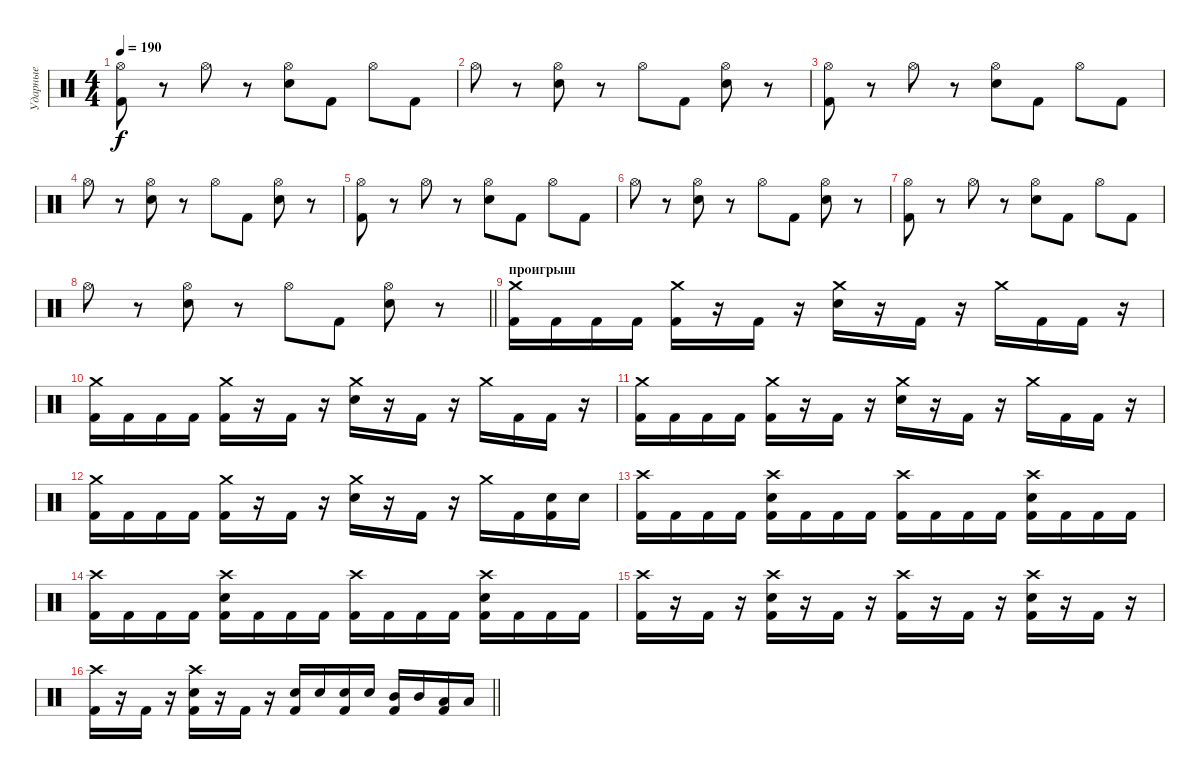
\track ("Ударные" "Ударные") {instrument percussion}
\staff {score}
\articulation defaults
\ts (4 4)
\tempo 190
\clef neutral
\ks c
("Hi-Hat (open)" "Kick (hit) 2").8{dy f} r.8 "Hi-Hat (open)".8 r.8 ("Hi-Hat (open)" "Electric Snare (hit)").8 "Kick (hit) 2".8 "Hi-Hat (open)".8 "Kick (hit) 2".8 |
"Hi-Hat (open)".8 r.8 ("Hi-Hat (open)" "Electric Snare (hit)").8 r.8 "Hi-Hat (open)".8 "Kick (hit) 2".8 ("Hi-Hat (open)" "Electric Snare (hit)").8 r.8 |
("Hi-Hat (open)" "Kick (hit) 2").8 r.8 "Hi-Hat (open)".8 r.8 ("Hi-Hat (open)" "Electric Snare (hit)").8 "Kick (hit) 2".8 "Hi-Hat (open)".8 "Kick (hit) 2".8 |
"Hi-Hat (open)".8 r.8 ("Hi-Hat (open)" "Electric Snare (hit)").8 r.8 "Hi-Hat (open)".8 "Kick (hit) 2".8 ("Hi-Hat (open)" "Electric Snare (hit)").8 r.8 |
("Hi-Hat (open)" "Kick (hit) 2").8 r.8 "Hi-Hat (open)".8 r.8 ("Hi-Hat (open)" "Electric Snare (hit)").8 "Kick (hit) 2".8 "Hi-Hat (open)".8 "Kick (hit) 2".8 |
"Hi-Hat (open)".8 r.8 ("Hi-Hat (open)" "Electric Snare (hit)").8 r.8 "Hi-Hat (open)".8 "Kick (hit) 2".8 ("Hi-Hat (open)" "Electric Snare (hit)").8 r.8 |
("Hi-Hat (open)" "Kick (hit) 2").8 r.8 "Hi-Hat (open)".8 r.8 ("Hi-Hat (open)" "Electric Snare (hit)").8 "Kick (hit) 2".8 "Hi-Hat (open)".8 "Kick (hit) 2".8 |
\barLineRight lightlight "Hi-Hat (open)".8
r.8 ("Hi-Hat (open)" "Electric Snare (hit)").8 r.8 "Hi-Hat (open)".8 "Kick (hit) 2".8 ("Hi-Hat (open)" "Electric Snare (hit)").8 r.8 |
\section ("" "проигрыш")
("Kick (hit) 2" "Crash medium (hit)").16 "Kick (hit) 2".16 "Kick (hit) 2".16 "Kick (hit) 2".16 ("Kick (hit) 2" "Crash medium (hit)").16 r.16 "Kick (hit) 2".16 r.16 ("Electric Snare (hit)" "Crash medium (hit)").16 r.16 "Kick (hit) 2".16 r.16 "Crash medium (hit)".16 "Kick (hit) 2".16 "Kick (hit) 2".16 r.16 |
("Kick (hit) 2" "Crash medium (hit)").16 "Kick (hit) 2".16 "Kick (hit) 2".16 "Kick (hit) 2".16 ("Kick (hit) 2" "Crash medium (hit)").16 r.16 "Kick (hit) 2".16 r.16 ("Electric Snare (hit)" "Crash medium (hit)").16 r.16 "Kick (hit) 2".16 r.16 "Crash medium (hit)".16 "Kick (hit) 2".16 "Kick (hit) 2".16 r.16 |
("Kick (hit) 2" "Crash medium (hit)").16 "Kick (hit) 2".16 "Kick (hit) 2".16 "Kick (hit) 2".16 ("Kick (hit) 2" "Crash medium (hit)").16 r.16 "Kick (hit) 2".16 r.16 ("Electric Snare (hit)" "Crash medium (hit)").16 r.16 "Kick (hit) 2".16 r.16 "Crash medium (hit)".16 "Kick (hit) 2".16 "Kick (hit) 2".16 r.16 |
("Kick (hit) 2" "Crash medium (hit)").16 "Kick (hit) 2".16 "Kick (hit) 2".16 "Kick (hit) 2".16 ("Kick (hit) 2" "Crash medium (hit)").16 r.16 "Kick (hit) 2".16 r.16 ("Electric Snare (hit)" "Crash medium (hit)").16 r.16 "Kick (hit) 2".16 r.16 "Crash medium (hit)".16 "Kick (hit) 2".16 ("Electric Snare (hit)" "Kick (hit) 2").16 "Electric Snare (hit)".16 |
("Crash high (hit)" "Kick (hit) 2").16 "Kick (hit) 2".16 "Kick (hit) 2".16 "Kick (hit) 2".16 ("Crash high (hit)" "Electric Snare (hit)" "Kick (hit) 2").16 "Kick (hit) 2".16 "Kick (hit) 2".16 "Kick (hit) 2".16 ("Crash high (hit)" "Kick (hit) 2").16 "Kick (hit) 2".16 "Kick (hit) 2".16 "Kick (hit) 2".16 ("Crash high (hit)" "Electric Snare (hit)" "Kick (hit) 2").16 "Kick (hit) 2".16 "Kick (hit) 2".16 "Kick (hit) 2".16 |
("Crash high (hit)" "Kick (hit) 2").16 "Kick (hit) 2".16 "Kick (hit) 2".16 "Kick (hit) 2".16 ("Crash high (hit)" "Electric Snare (hit)" "Kick (hit) 2").16 "Kick (hit) 2".16 "Kick (hit) 2".16 "Kick (hit) 2".16 ("Crash high (hit)" "Kick (hit) 2").16 "Kick (hit) 2".16 "Kick (hit) 2".16 "Kick (hit) 2".16 ("Crash high (hit)" "Electric Snare (hit)" "Kick (hit) 2").16 "Kick (hit) 2".16 "Kick (hit) 2".16 "Kick (hit) 2".16 |
("Crash high (hit)" "Kick (hit) 2").16 r.16 "Kick (hit) 2".16 r.16 ("Crash high (hit)" "Electric Snare (hit)" "Kick (hit) 2").16 r.16 "Kick (hit) 2".16 r.16 ("Crash high (hit)" "Kick (hit) 2").16 r.16 "Kick (hit) 2".16 r.16 ("Crash high (hit)" "Electric Snare (hit)" "Kick (hit) 2").16 r.16 "Kick (hit) 2".16 r.16 |
\barLineRight lightlight
("Crash high (hit)" "Kick (hit) 2").16 r.16 "Kick (hit) 2".16 r.16 ("Crash high (hit)" "Electric Snare (hit)" "Kick (hit) 2").16 r.16 "Kick (hit) 2".16 r.16 ("Electric Snare (hit)" "Kick (hit) 2").16 "Electric Snare (hit)".16 ("Electric Snare (hit)" "Kick (hit) 2").16 "Electric Snare (hit)".16 ("Mid Tom (hit)" "Kick (hit) 2").16 "Mid Tom (hit)".16 ("Low Floor Tom (hit)" "Kick (hit) 2").16 "Low Floor Tom (hit)".16
